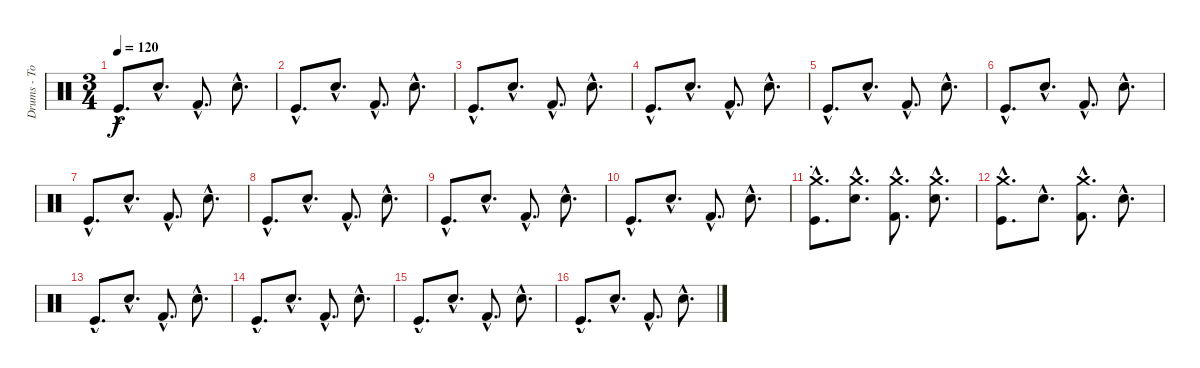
\track ("Drums - Tom" "Drums - To") {instrument percussion}
\staff {score}
\articulation defaults
\ts (3 4)
\tempo 120
\clef neutral
\ks c "Kick (hit)"{hac}.8{d dy f} "Snare (hit) 2"{hac}.8{d} "Kick (hit) 2"{hac}.8{d} "Snare (hit) 2"{hac}.8{d}
|
"Kick (hit)"{hac}.8{d} "Snare (hit) 2"{hac}.8{d} "Kick (hit) 2"{hac}.8{d} "Snare (hit) 2"{hac}.8{d} |
"Kick (hit)"{hac}.8{d} "Snare (hit) 2"{hac}.8{d} "Kick (hit) 2"{hac}.8{d} "Snare (hit) 2"{hac}.8{d} |
"Kick (hit)"{hac}.8{d} "Snare (hit) 2"{hac}.8{d} "Kick (hit) 2"{hac}.8{d} "Snare (hit) 2"{hac}.8{d} |
"Kick (hit)"{hac}.8{d} "Snare (hit) 2"{hac}.8{d} "Kick (hit) 2"{hac}.8{d} "Snare (hit) 2"{hac}.8{d} |
"Kick (hit)"{hac}.8{d} "Snare (hit) 2"{hac}.8{d} "Kick (hit) 2"{hac}.8{d} "Snare (hit) 2"{hac}.8{d} |
"Kick (hit)"{hac}.8{d} "Snare (hit) 2"{hac}.8{d} "Kick (hit) 2"{hac}.8{d} "Snare (hit) 2"{hac}.8{d} |
"Kick (hit)"{hac}.8{d} "Snare (hit) 2"{hac}.8{d} "Kick (hit) 2"{hac}.8{d} "Snare (hit) 2"{hac}.8{d} |
"Kick (hit)"{hac}.8{d} "Snare (hit) 2"{hac}.8{d} "Kick (hit) 2"{hac}.8{d} "Snare (hit) 2"{hac}.8{d} |
"Kick (hit)"{hac}.8{d} "Snare (hit) 2"{hac}.8{d} "Kick (hit) 2"{hac}.8{d} "Snare (hit) 2"{hac}.8{d} |
\section ("" ".")
("Kick (hit)"{hac} "Crash medium (hit)"{hac}).8{d} ("Snare (hit) 2"{hac} "Crash medium (hit)"{hac}).8{d} ("Kick (hit) 2"{hac} "Crash medium (hit)"{hac}).8{d} ("Snare (hit) 2"{hac} "Crash medium (hit)"{hac}).8{d} |
("Kick (hit)"{hac} "Crash medium (hit)"{hac}).8{d} "Snare (hit) 2"{hac}.8{d} ("Kick (hit) 2"{hac} "Crash medium (hit)"{hac}).8{d} "Snare (hit) 2"{hac}.8{d} |
"Kick (hit)"{hac}.8{d} "Snare (hit) 2"{hac}.8{d} "Kick (hit) 2"{hac}.8{d} "Snare (hit) 2"{hac}.8{d} |
"Kick (hit)"{hac}.8{d} "Snare (hit) 2"{hac}.8{d} "Kick (hit) 2"{hac}.8{d} "Snare (hit) 2"{hac}.8{d} |
"Kick (hit)"{hac}.8{d} "Snare (hit) 2"{hac}.8{d} "Kick (hit) 2"{hac}.8{d} "Snare (hit) 2"{hac}.8{d} |
"Kick (hit)"{hac}.8{d} "Snare (hit) 2"{hac}.8{d} "Kick (hit) 2"{hac}.8{d} "Snare (hit) 2"{hac}.8{d}
